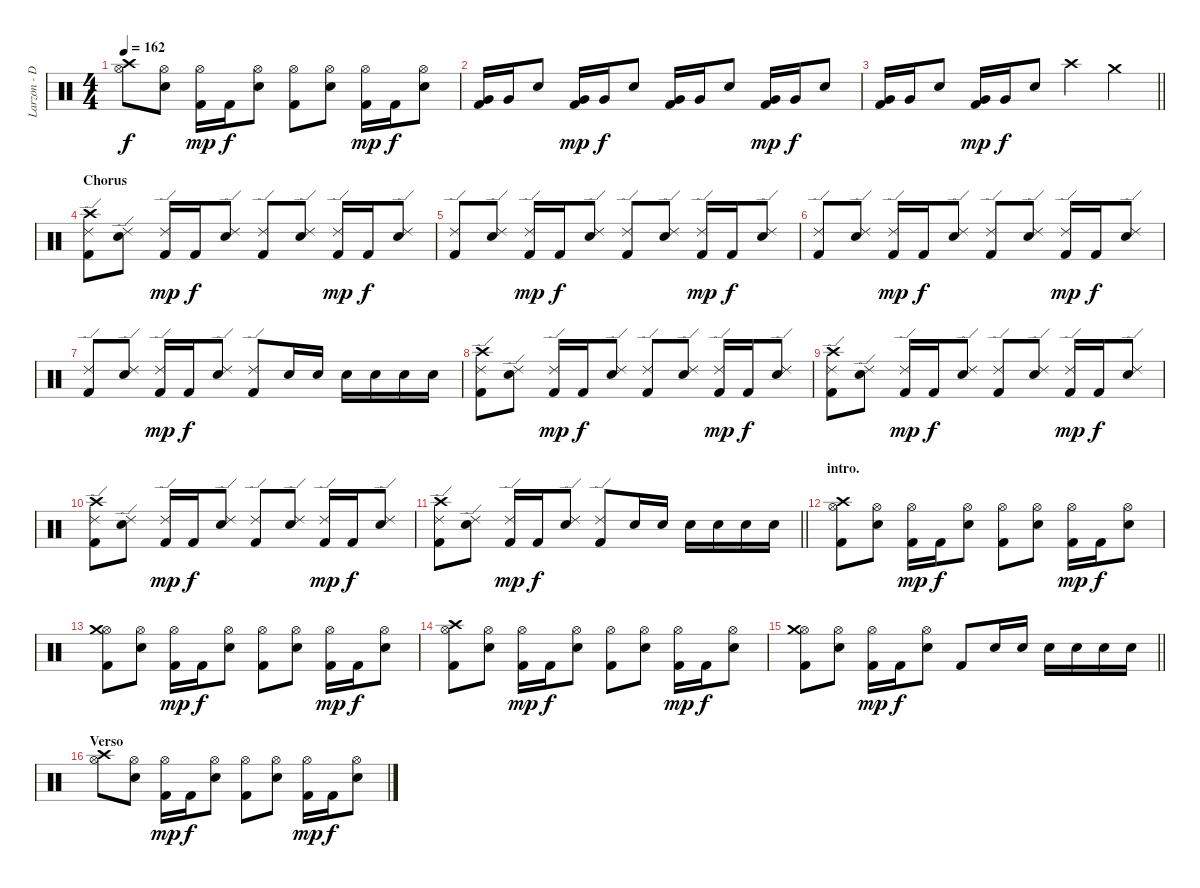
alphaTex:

\track ("Larzon - Drums" "Larzon - D") {instrument percussion}
\staff {score}
\articulation defaults
\ts (4 4)
\tempo 162
\clef neutral
\ks c
("Crash high (hit)" "Hi-Hat (open)").8{dy f} ("Snare (hit) 2" "Hi-Hat (open)").8 ("Kick (hit) 2" "Hi-Hat (open)").16{dy mp} "Kick (hit) 2".16{dy f} ("Snare (hit) 2" "Hi-Hat (open)").8 ("Kick (hit) 2" "Hi-Hat (open)").8 ("Snare (hit) 2" "Hi-Hat (open)").8 ("Kick (hit) 2" "Hi-Hat (open)").16{dy mp} "Kick (hit) 2".16{dy f} ("Snare (hit) 2" "Hi-Hat (open)").8 |
("Kick (hit) 2" "Very Low Tom (hit)").16 "Very Low Tom (hit)".16 "Snare (hit) 2".8 ("Kick (hit) 2" "Very Low Tom (hit)").16{dy mp} "Very Low Tom (hit)".16{dy f} "Snare (hit) 2".8 ("Kick (hit) 2" "Very Low Tom (hit)").16 "Very Low Tom (hit)".16 "Snare (hit) 2".8 ("Kick (hit) 2" "Very Low Tom (hit)").16{dy mp} "Very Low Tom (hit)".16{dy f} "Snare (hit) 2".8 |
\barLineRight lightlight
("Kick (hit) 2" "Very Low Tom (hit)").16 "Very Low Tom (hit)".16 "Snare (hit) 2".8 ("Kick (hit) 2" "Very Low Tom (hit)").16{dy mp} "Very Low Tom (hit)".16{dy f} "Snare (hit) 2".8 "Crash high (hit)".4 "Crash medium (hit)".4 |
\section ("" "Chorus")
("Kick (hit) 2" "Ride (edge) 2" "Crash high (hit)").8 ("Snare (hit) 2" "Ride (edge) 2").8 ("Kick (hit) 2" "Ride (edge) 2").16{dy mp} "Kick (hit) 2".16{dy f} ("Snare (hit) 2" "Ride (edge) 2").8 ("Kick (hit) 2" "Ride (edge) 2").8 ("Snare (hit) 2" "Ride (edge) 2").8 ("Kick (hit) 2" "Ride (edge) 2").16{dy mp} "Kick (hit) 2".16{dy f} ("Snare (hit) 2" "Ride (edge) 2").8 |
("Kick (hit) 2" "Ride (edge) 2").8 ("Snare (hit) 2" "Ride (edge) 2").8 ("Kick (hit) 2" "Ride (edge) 2").16{dy mp} "Kick (hit) 2".16{dy f} ("Snare (hit) 2" "Ride (edge) 2").8 ("Kick (hit) 2" "Ride (edge) 2").8 ("Snare (hit) 2" "Ride (edge) 2").8 ("Kick (hit) 2" "Ride (edge) 2").16{dy mp} "Kick (hit) 2".16{dy f} ("Snare (hit) 2" "Ride (edge) 2").8 |
("Kick (hit) 2" "Ride (edge) 2").8 ("Snare (hit) 2" "Ride (edge) 2").8 ("Kick (hit) 2" "Ride (edge) 2").16{dy mp} "Kick (hit) 2".16{dy f} ("Snare (hit) 2" "Ride (edge) 2").8 ("Kick (hit) 2" "Ride (edge) 2").8 ("Snare (hit) 2" "Ride (edge) 2").8 ("Kick (hit) 2" "Ride (edge) 2").16{dy mp} "Kick (hit) 2".16{dy f} ("Snare (hit) 2" "Ride (edge) 2").8 |
("Kick (hit) 2" "Ride (edge) 2").8 ("Snare (hit) 2" "Ride (edge) 2").8 ("Kick (hit) 2" "Ride (edge) 2").16{dy mp} "Kick (hit) 2".16{dy f} ("Snare (hit) 2" "Ride (edge) 2").8 ("Kick (hit) 2" "Ride (edge) 2").8 "Snare (hit) 2".16 "Snare (hit) 2".16 "Snare (hit) 2".16 "Snare (hit) 2".16 "Snare (hit) 2".16 "Snare (hit) 2".16 |
("Kick (hit) 2" "Ride (edge) 2" "Crash high (hit)").8 ("Snare (hit) 2" "Ride (edge) 2").8 ("Kick (hit) 2" "Ride (edge) 2").16{dy mp} "Kick (hit) 2".16{dy f} ("Snare (hit) 2" "Ride (edge) 2").8 ("Kick (hit) 2" "Ride (edge) 2").8 ("Snare (hit) 2" "Ride (edge) 2").8 ("Kick (hit) 2" "Ride (edge) 2").16{dy mp} "Kick (hit) 2".16{dy f} ("Snare (hit) 2" "Ride (edge) 2").8 |
("Kick (hit) 2" "Ride (edge) 2" "Crash high (hit)").8 ("Snare (hit) 2" "Ride (edge) 2").8 ("Kick (hit) 2" "Ride (edge) 2").16{dy mp} "Kick (hit) 2".16{dy f} ("Snare (hit) 2" "Ride (edge) 2").8 ("Kick (hit) 2" "Ride (edge) 2").8 ("Snare (hit) 2" "Ride (edge) 2").8 ("Kick (hit) 2" "Ride (edge) 2").16{dy mp} "Kick (hit) 2".16{dy f} ("Snare (hit) 2" "Ride (edge) 2").8 |
("Kick (hit) 2" "Ride (edge) 2" "Crash high (hit)").8 ("Snare (hit) 2" "Ride (edge) 2").8 ("Kick (hit) 2" "Ride (edge) 2").16{dy mp} "Kick (hit) 2".16{dy f} ("Snare (hit) 2" "Ride (edge) 2").8 ("Kick (hit) 2" "Ride (edge) 2").8 ("Snare (hit) 2" "Ride (edge) 2").8 ("Kick (hit) 2" "Ride (edge) 2").16{dy mp} "Kick (hit) 2".16{dy f} ("Snare (hit) 2" "Ride (edge) 2").8 |
\barLineRight lightlight
("Kick (hit) 2" "Ride (edge) 2" "Crash high (hit)").8 ("Snare (hit) 2" "Ride (edge) 2").8 ("Kick (hit) 2" "Ride (edge) 2").16{dy mp} "Kick (hit) 2".16{dy f} ("Snare (hit) 2" "Ride (edge) 2").8 ("Kick (hit) 2" "Ride (edge) 2").8 "Snare (hit) 2".16 "Snare (hit) 2".16 "Snare (hit) 2".16 "Snare (hit) 2".16 "Snare (hit) 2".16 "Snare (hit) 2".16 |
\section ("" "intro.")
("Kick (hit) 2" "Hi-Hat (open)" "Crash high (hit)").8 ("Snare (hit) 2" "Hi-Hat (open)").8 ("Kick (hit) 2" "Hi-Hat (open)").16{dy mp} "Kick (hit) 2".16{dy f} ("Snare (hit) 2" "Hi-Hat (open)").8 ("Kick (hit) 2" "Hi-Hat (open)").8 ("Snare (hit) 2" "Hi-Hat (open)").8 ("Kick (hit) 2" "Hi-Hat (open)").16{dy mp} "Kick (hit) 2".16{dy f} ("Snare (hit) 2" "Hi-Hat (open)").8 |
("Kick (hit) 2" "Hi-Hat (open)" "Crash medium (hit)").8 ("Snare (hit) 2" "Hi-Hat (open)").8 ("Kick (hit) 2" "Hi-Hat (open)").16{dy mp} "Kick (hit) 2".16{dy f} ("Snare (hit) 2" "Hi-Hat (open)").8 ("Kick (hit) 2" "Hi-Hat (open)").8 ("Snare (hit) 2" "Hi-Hat (open)").8 ("Kick (hit) 2" "Hi-Hat (open)").16{dy mp} "Kick (hit) 2".16{dy f} ("Snare (hit) 2" "Hi-Hat (open)").8 |
("Kick (hit) 2" "Hi-Hat (open)" "Crash high (hit)").8 ("Snare (hit) 2" "Hi-Hat (open)").8 ("Kick (hit) 2" "Hi-Hat (open)").16{dy mp} "Kick (hit) 2".16{dy f} ("Snare (hit) 2" "Hi-Hat (open)").8 ("Kick (hit) 2" "Hi-Hat (open)").8 ("Snare (hit) 2" "Hi-Hat (open)").8 ("Kick (hit) 2" "Hi-Hat (open)").16{dy mp} "Kick (hit) 2".16{dy f} ("Snare (hit) 2" "Hi-Hat (open)").8 |
\barLineRight lightlight
("Kick (hit) 2" "Hi-Hat (open)" "Crash medium (hit)").8 ("Snare (hit) 2" "Hi-Hat (open)").8 ("Kick (hit) 2" "Hi-Hat (open)").16{dy mp} "Kick (hit) 2".16{dy f} ("Snare (hit) 2" "Hi-Hat (open)").8 "Kick (hit) 2".8 "Snare (hit) 2".16 "Snare (hit) 2".16 "Snare (hit) 2".16 "Snare (hit) 2".16 "Snare (hit) 2".16 "Snare (hit) 2".16 |
\section ("" "Verso")
("Crash high (hit)" "Hi-Hat (open)").8 ("Snare (hit) 2" "Hi-Hat (open)").8 ("Kick (hit) 2" "Hi-Hat (open)").16{dy mp} "Kick (hit) 2".16{dy f} ("Snare (hit) 2" "Hi-Hat (open)").8 ("Kick (hit) 2" "Hi-Hat (open)").8 ("Snare (hit) 2" "Hi-Hat (open)").8 ("Kick (hit) 2" "Hi-Hat (open)").16{dy mp} "Kick (hit) 2".16{dy f} ("Snare (hit) 2" "Hi-Hat (open)").8
